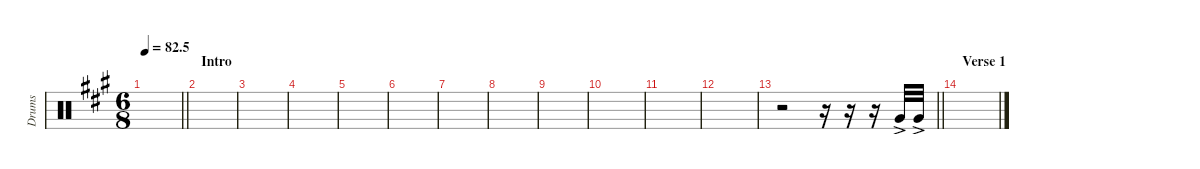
\defaultSystemsLayout 4
\hideDynamics
\bracketExtendMode nobrackets
\otherSystemsTrackNameOrientation horizontal
\track ("Tom 04" "Drums") {instrument percussion}
\staff {score}
\articulation defaults
\ts (6 8)
\tempo
82.5
\accidentals auto
\clef neutral
\ottava regular
\simile none
\scale
0.474178
\barLineRight lightlight
\ks a
|
\section ("" "Intro")
\scale
0.262911 |
\scale
0.262911 |
\scale
0.333333 |
\scale
0.333333 |
\scale
0.333333 |
\scale
0.333333 |
\scale
0.333333 |
\scale
0.333333 |
\scale
0.333333 |
\scale
0.333333 |
\scale
0.333333 |
\scale
0.333333
\barLineRight lightlight
r.2 r.16 r.16 r.16 "Very Low Tom (hit)"{ac acc forcenatural}.32 "Very Low Tom (hit)"{ac acc forcenatural}.32 |
\section ("" "Verse 1")
\scale
0.333333 |
\scale
0.333333 |
\scale
0.333333
